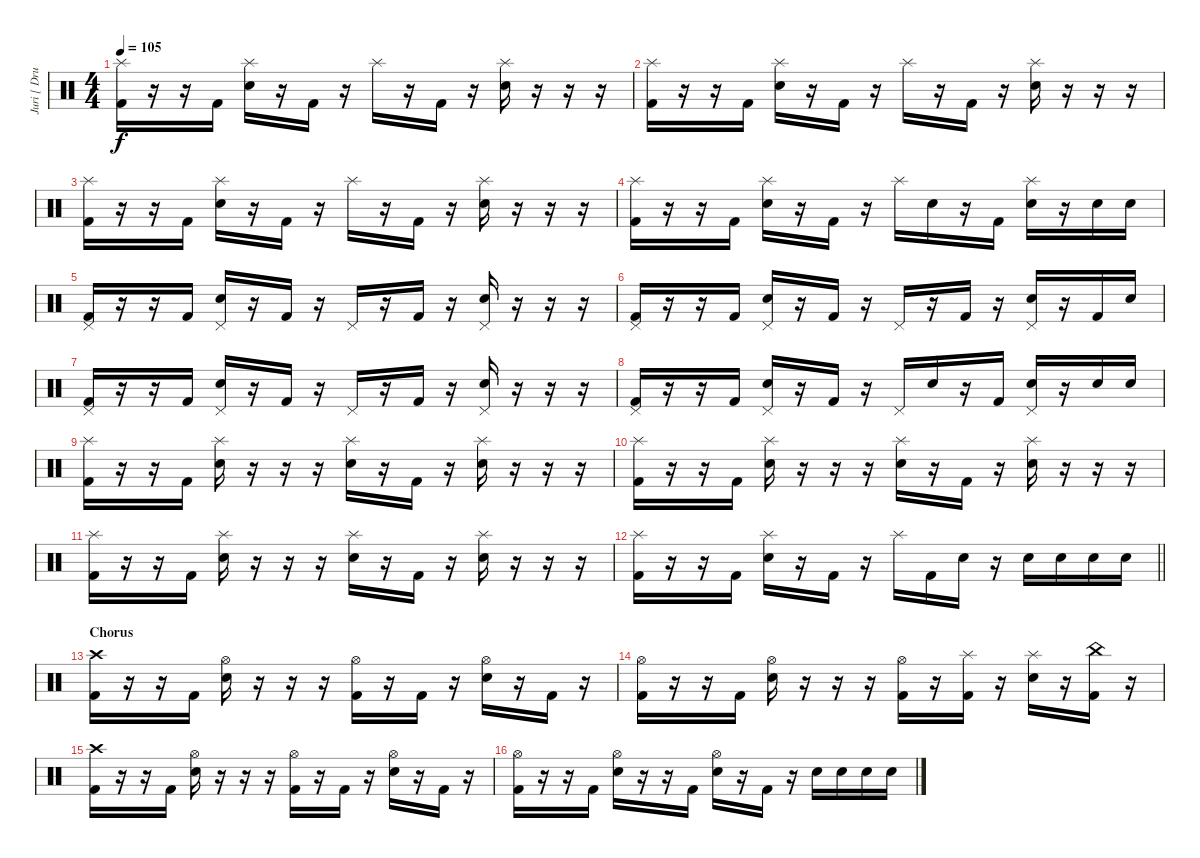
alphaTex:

\track ("Juri [ Drums]" "Juri [ Dru") {instrument percussion}
\staff {score}
\articulation defaults
\ts (4 4)
\tempo 105
\clef neutral
\ks c
("Splash (hit)" "Kick (hit) 2").16{dy f} r.16 r.16 "Kick (hit) 2".16 ("Splash (hit)" "Electric Snare (hit)").16 r.16 "Kick (hit) 2".16 r.16 "Splash (hit)".16 r.16 "Kick (hit) 2".16 r.16 ("Splash (hit)" "Electric Snare (hit)").16 r.16 r.16 r.16 |
("Splash (hit)" "Kick (hit) 2").16 r.16 r.16 "Kick (hit) 2".16 ("Splash (hit)" "Electric Snare (hit)").16 r.16 "Kick (hit) 2".16 r.16 "Splash (hit)".16 r.16 "Kick (hit) 2".16 r.16 ("Splash (hit)" "Electric Snare (hit)").16 r.16 r.16 r.16 |
("Splash (hit)" "Kick (hit) 2").16 r.16 r.16 "Kick (hit) 2".16 ("Splash (hit)" "Electric Snare (hit)").16 r.16 "Kick (hit) 2".16 r.16 "Splash (hit)".16 r.16 "Kick (hit) 2".16 r.16 ("Splash (hit)" "Electric Snare (hit)").16 r.16 r.16 r.16 |
("Splash (hit)" "Kick (hit) 2").16 r.16 r.16 "Kick (hit) 2".16 ("Splash (hit)" "Electric Snare (hit)").16 r.16 "Kick (hit) 2".16 r.16 "Splash (hit)".16 "Electric Snare (hit)".16 r.16 "Kick (hit) 2".16 ("Splash (hit)" "Electric Snare (hit)").16 r.16 "Electric Snare (hit)".16 "Electric Snare (hit)".16 |
("Pedal Hi-Hat (hit)" "Kick (hit) 2").16 r.16 r.16 "Kick (hit) 2".16 ("Pedal Hi-Hat (hit)" "Electric Snare (hit)").16 r.16 "Kick (hit) 2".16 r.16 "Pedal Hi-Hat (hit)".16 r.16 "Kick (hit) 2".16 r.16 ("Pedal Hi-Hat (hit)" "Electric Snare (hit)").16 r.16 r.16 r.16 |
("Pedal Hi-Hat (hit)" "Kick (hit) 2").16 r.16 r.16 "Kick (hit) 2".16 ("Pedal Hi-Hat (hit)" "Electric Snare (hit)").16 r.16 "Kick (hit) 2".16 r.16 "Pedal Hi-Hat (hit)".16 r.16 "Kick (hit) 2".16 r.16 ("Pedal Hi-Hat (hit)" "Electric Snare (hit)").16 r.16 "Kick (hit) 2".16 "Electric Snare (hit)".16 |
("Pedal Hi-Hat (hit)" "Kick (hit) 2").16 r.16 r.16 "Kick (hit) 2".16 ("Pedal Hi-Hat (hit)" "Electric Snare (hit)").16 r.16 "Kick (hit) 2".16 r.16 "Pedal Hi-Hat (hit)".16 r.16 "Kick (hit) 2".16 r.16 ("Pedal Hi-Hat (hit)" "Electric Snare (hit)").16 r.16 r.16 r.16 |
("Pedal Hi-Hat (hit)" "Kick (hit) 2").16 r.16 r.16 "Kick (hit) 2".16 ("Pedal Hi-Hat (hit)" "Electric Snare (hit)").16 r.16 "Kick (hit) 2".16 r.16 "Pedal Hi-Hat (hit)".16 "Electric Snare (hit)".16 r.16 "Kick (hit) 2".16 ("Pedal Hi-Hat (hit)" "Electric Snare (hit)").16 r.16 "Electric Snare (hit)".16 "Electric Snare (hit)".16 |
("Splash (hit)" "Kick (hit) 2").16 r.16 r.16 "Kick (hit) 2".16 ("Splash (hit)" "Electric Snare (hit)").16 r.16 r.16 r.16 ("Splash (hit)" "Electric Snare (hit)").16 r.16 "Kick (hit) 2".16 r.16 ("Splash (hit)" "Electric Snare (hit)").16 r.16 r.16 r.16 |
("Splash (hit)" "Kick (hit) 2").16 r.16 r.16 "Kick (hit) 2".16 ("Splash (hit)" "Electric Snare (hit)").16 r.16 r.16 r.16 ("Splash (hit)" "Electric Snare (hit)").16 r.16 "Kick (hit) 2".16 r.16 ("Splash (hit)" "Electric Snare (hit)").16 r.16 r.16 r.16 |
("Splash (hit)" "Kick (hit) 2").16 r.16 r.16 "Kick (hit) 2".16 ("Splash (hit)" "Electric Snare (hit)").16 r.16 r.16 r.16 ("Splash (hit)" "Electric Snare (hit)").16 r.16 "Kick (hit) 2".16 r.16 ("Splash (hit)" "Electric Snare (hit)").16 r.16 r.16 r.16 |
\barLineRight lightlight
("Splash (hit)" "Kick (hit) 2").16 r.16 r.16 "Kick (hit) 2".16 ("Splash (hit)" "Electric Snare (hit)").16 r.16 "Kick (hit) 2".16 r.16 "Splash (hit)".16 "Kick (hit) 2".16 "Electric Snare (hit)".16 r.16 "Electric Snare (hit)".16 "Electric Snare (hit)".16 "Electric Snare (hit)".16 "Electric Snare (hit)".16 |
\section ("" "Chorus")
("Crash high (hit)" "Kick (hit) 2").16 r.16 r.16 "Kick (hit) 2".16 ("Hi-Hat (open)" "Electric Snare (hit)").16 r.16 r.16 r.16 ("Hi-Hat (open)" "Kick (hit) 2").16 r.16 "Kick (hit) 2".16 r.16 ("Hi-Hat (open)" "Electric Snare (hit)").16 r.16 "Kick (hit) 2".16 r.16 |
("Hi-Hat (open)" "Kick (hit) 2").16 r.16 r.16 "Kick (hit) 2".16 ("Hi-Hat (open)" "Electric Snare (hit)").16 r.16 r.16 r.16 ("Hi-Hat (open)" "Kick (hit) 2").16 r.16 ("Splash (hit)" "Kick (hit) 2").16 r.16 ("Splash (hit)" "Electric Snare (hit)").16 r.16 ("China (hit)" "Kick (hit) 2").16 r.16 |
("Crash high (hit)" "Kick (hit) 2").16 r.16 r.16 "Kick (hit) 2".16 ("Hi-Hat (open)" "Electric Snare (hit)").16 r.16 r.16 r.16 ("Hi-Hat (open)" "Kick (hit) 2").16 r.16 "Kick (hit) 2".16 r.16 ("Hi-Hat (open)" "Electric Snare (hit)").16 r.16 "Kick (hit) 2".16 r.16 |
("Hi-Hat (open)" "Kick (hit) 2").16 r.16 r.16 "Kick (hit) 2".16 ("Hi-Hat (open)" "Electric Snare (hit)").16 r.16 r.16 "Kick (hit) 2".16 ("Hi-Hat (open)" "Electric Snare (hit)").16 r.16 "Kick (hit) 2".16 r.16 "Electric Snare (hit)".16 "Electric Snare (hit)".16 "Electric Snare (hit)".16 "Electric Snare (hit)".16
